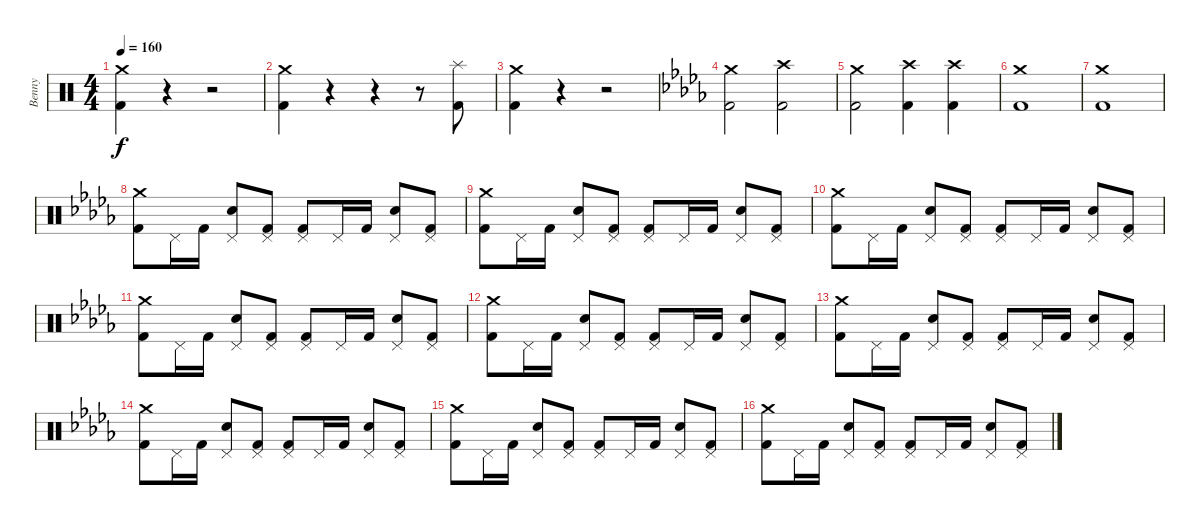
\track ("Benny" "Benny") {instrument percussion}
\staff {score}
\articulation defaults
\ts (4 4)
\tempo 160
\clef neutral
\ks c
("Crash medium (hit)" "Kick (hit) 2").4{dy f} r.4 r.2 |
("Crash medium (hit)" "Kick (hit) 2").4 r.4 r.4 r.8 ("Splash (hit)" "Kick (hit) 2").8 |
("Crash medium (hit)" "Kick (hit) 2").4 r.4 r.2 |
\ks db
("Crash medium (hit)" "Kick (hit) 2").2 ("Crash high (hit)" "Kick (hit) 2").2 |
("Crash medium (hit)" "Kick (hit) 2").2 ("Crash high (hit)" "Kick (hit) 2").4 ("Crash high (hit)" "Kick (hit) 2").4 |
("Crash medium (hit)" "Kick (hit) 2").1 |
("Crash medium (hit)" "Kick (hit) 2").1 |
("Crash medium (hit)" "Kick (hit) 2").8 "Pedal Hi-Hat (hit)".16 "Kick (hit) 2".16 ("Pedal Hi-Hat (hit)" "Snare (hit) 2").8 ("Pedal Hi-Hat (hit)" "Kick (hit) 2").8 ("Pedal Hi-Hat (hit)" "Kick (hit) 2").8 "Pedal Hi-Hat (hit)".16 "Kick (hit) 2".16 ("Pedal Hi-Hat (hit)" "Snare (hit) 2").8 ("Pedal Hi-Hat (hit)" "Kick (hit) 2").8 |
("Crash medium (hit)" "Kick (hit) 2").8 "Pedal Hi-Hat (hit)".16 "Kick (hit) 2".16 ("Pedal Hi-Hat (hit)" "Snare (hit) 2").8 ("Pedal Hi-Hat (hit)" "Kick (hit) 2").8 ("Pedal Hi-Hat (hit)" "Kick (hit) 2").8 "Pedal Hi-Hat (hit)".16 "Kick (hit) 2".16 ("Pedal Hi-Hat (hit)" "Snare (hit) 2").8 ("Pedal Hi-Hat (hit)" "Kick (hit) 2").8 |
("Crash medium (hit)" "Kick (hit) 2").8 "Pedal Hi-Hat (hit)".16 "Kick (hit) 2".16 ("Pedal Hi-Hat (hit)" "Snare (hit) 2").8 ("Pedal Hi-Hat (hit)" "Kick (hit) 2").8 ("Pedal Hi-Hat (hit)" "Kick (hit) 2").8 "Pedal Hi-Hat (hit)".16 "Kick (hit) 2".16 ("Pedal Hi-Hat (hit)" "Snare (hit) 2").8 ("Pedal Hi-Hat (hit)" "Kick (hit) 2").8 |
("Crash medium (hit)" "Kick (hit) 2").8 "Pedal Hi-Hat (hit)".16 "Kick (hit) 2".16 ("Pedal Hi-Hat (hit)" "Snare (hit) 2").8 ("Pedal Hi-Hat (hit)" "Kick (hit) 2").8 ("Pedal Hi-Hat (hit)" "Kick (hit) 2").8 "Pedal Hi-Hat (hit)".16 "Kick (hit) 2".16 ("Pedal Hi-Hat (hit)" "Snare (hit) 2").8 ("Pedal Hi-Hat (hit)" "Kick (hit) 2").8 |
("Crash medium (hit)" "Kick (hit) 2").8 "Pedal Hi-Hat (hit)".16 "Kick (hit) 2".16 ("Pedal Hi-Hat (hit)" "Snare (hit) 2").8 ("Pedal Hi-Hat (hit)" "Kick (hit) 2").8 ("Pedal Hi-Hat (hit)" "Kick (hit) 2").8 "Pedal Hi-Hat (hit)".16 "Kick (hit) 2".16 ("Pedal Hi-Hat (hit)" "Snare (hit) 2").8 ("Pedal Hi-Hat (hit)" "Kick (hit) 2").8 |
("Crash medium (hit)" "Kick (hit) 2").8 "Pedal Hi-Hat (hit)".16 "Kick (hit) 2".16 ("Pedal Hi-Hat (hit)" "Snare (hit) 2").8 ("Pedal Hi-Hat (hit)" "Kick (hit) 2").8 ("Pedal Hi-Hat (hit)" "Kick (hit) 2").8 "Pedal Hi-Hat (hit)".16 "Kick (hit) 2".16 ("Pedal Hi-Hat (hit)" "Snare (hit) 2").8 ("Pedal Hi-Hat (hit)" "Kick (hit) 2").8 |
("Crash medium (hit)" "Kick (hit) 2").8 "Pedal Hi-Hat (hit)".16 "Kick (hit) 2".16 ("Pedal Hi-Hat (hit)" "Snare (hit) 2").8 ("Pedal Hi-Hat (hit)" "Kick (hit) 2").8 ("Pedal Hi-Hat (hit)" "Kick (hit) 2").8 "Pedal Hi-Hat (hit)".16 "Kick (hit) 2".16 ("Pedal Hi-Hat (hit)" "Snare (hit) 2").8 ("Pedal Hi-Hat (hit)" "Kick (hit) 2").8 |
("Crash medium (hit)" "Kick (hit) 2").8 "Pedal Hi-Hat (hit)".16 "Kick (hit) 2".16 ("Pedal Hi-Hat (hit)" "Snare (hit) 2").8 ("Pedal Hi-Hat (hit)" "Kick (hit) 2").8 ("Pedal Hi-Hat (hit)" "Kick (hit) 2").8 "Pedal Hi-Hat (hit)".16 "Kick (hit) 2".16 ("Pedal Hi-Hat (hit)" "Snare (hit) 2").8 ("Pedal Hi-Hat (hit)" "Kick (hit) 2").8 |
("Crash medium (hit)" "Kick (hit) 2").8 "Pedal Hi-Hat (hit)".16 "Kick (hit) 2".16 ("Pedal Hi-Hat (hit)" "Snare (hit) 2").8 ("Pedal Hi-Hat (hit)" "Kick (hit) 2").8 ("Pedal Hi-Hat (hit)" "Kick (hit) 2").8 "Pedal Hi-Hat (hit)".16 "Kick (hit) 2".16 ("Pedal Hi-Hat (hit)" "Snare (hit) 2").8 ("Pedal Hi-Hat (hit)" "Kick (hit) 2").8
